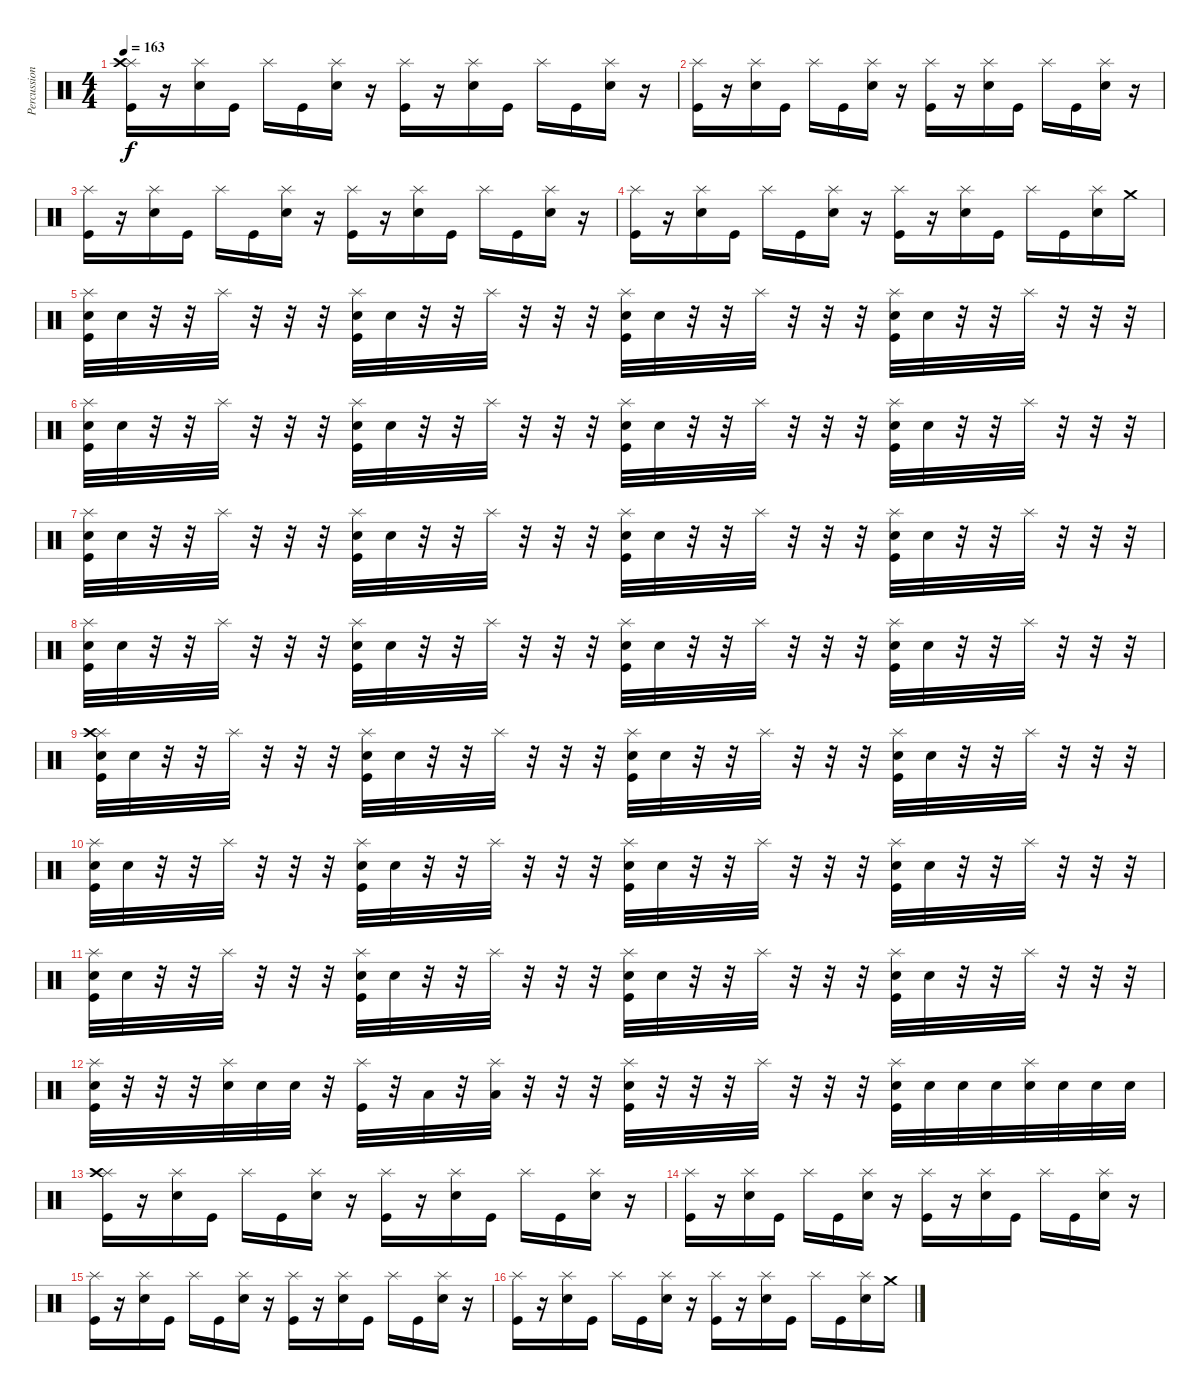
\track ("Percussions" "Percussion") {instrument percussion}
\staff {score}
\articulation defaults
\ts (4 4)
\tempo 163
\clef neutral
\ks c
("Splash (hit)" "Crash high (hit)" "Kick (hit)").16{dy f} r.16 ("Splash (hit)" "Snare (hit) 2").16 "Kick (hit)".16 "Splash (hit)".16 "Kick (hit)".16 ("Splash (hit)" "Snare (hit) 2").16 r.16 ("Splash (hit)" "Kick (hit)").16 r.16 ("Splash (hit)" "Snare (hit) 2").16 "Kick (hit)".16 "Splash (hit)".16 "Kick (hit)".16 ("Splash (hit)" "Snare (hit) 2").16 r.16 |
("Splash (hit)" "Kick (hit)").16 r.16 ("Splash (hit)" "Snare (hit) 2").16 "Kick (hit)".16 "Splash (hit)".16 "Kick (hit)".16 ("Splash (hit)" "Snare (hit) 2").16 r.16 ("Splash (hit)" "Kick (hit)").16 r.16 ("Splash (hit)" "Snare (hit) 2").16 "Kick (hit)".16 "Splash (hit)".16 "Kick (hit)".16 ("Splash (hit)" "Snare (hit) 2").16 r.16 |
("Splash (hit)" "Kick (hit)").16 r.16 ("Splash (hit)" "Snare (hit) 2").16 "Kick (hit)".16 "Splash (hit)".16 "Kick (hit)".16 ("Splash (hit)" "Snare (hit) 2").16 r.16 ("Splash (hit)" "Kick (hit)").16 r.16 ("Splash (hit)" "Snare (hit) 2").16 "Kick (hit)".16 "Splash (hit)".16 "Kick (hit)".16 ("Splash (hit)" "Snare (hit) 2").16 r.16 |
("Splash (hit)" "Kick (hit)").16 r.16 ("Splash (hit)" "Snare (hit) 2").16 "Kick (hit)".16 "Splash (hit)".16 "Kick (hit)".16 ("Splash (hit)" "Snare (hit) 2").16 r.16 ("Splash (hit)" "Kick (hit)").16 r.16 ("Splash (hit)" "Snare (hit) 2").16 "Kick (hit)".16 "Splash (hit)".16 "Kick (hit)".16 ("Splash (hit)" "Snare (hit) 2").16 "Crash medium (hit)".16 |
("Splash (hit)" "Snare (hit) 2" "Kick (hit)").32 "Snare (hit) 2".32 r.32 r.32 "Splash (hit)".32 r.32 r.32 r.32 ("Splash (hit)" "Snare (hit) 2" "Kick (hit)").32 "Snare (hit) 2".32 r.32 r.32 "Splash (hit)".32 r.32 r.32 r.32 ("Splash (hit)" "Snare (hit) 2" "Kick (hit)").32 "Snare (hit) 2".32 r.32 r.32 "Splash (hit)".32 r.32 r.32 r.32 ("Splash (hit)" "Snare (hit) 2" "Kick (hit)").32 "Snare (hit) 2".32 r.32 r.32 "Splash (hit)".32 r.32 r.32 r.32 |
("Splash (hit)" "Snare (hit) 2" "Kick (hit)").32 "Snare (hit) 2".32 r.32 r.32 "Splash (hit)".32 r.32 r.32 r.32 ("Splash (hit)" "Snare (hit) 2" "Kick (hit)").32 "Snare (hit) 2".32 r.32 r.32 "Splash (hit)".32 r.32 r.32 r.32 ("Splash (hit)" "Snare (hit) 2" "Kick (hit)").32 "Snare (hit) 2".32 r.32 r.32 "Splash (hit)".32 r.32 r.32 r.32 ("Splash (hit)" "Snare (hit) 2" "Kick (hit)").32 "Snare (hit) 2".32 r.32 r.32 "Splash (hit)".32 r.32 r.32 r.32 |
("Splash (hit)" "Snare (hit) 2" "Kick (hit)").32 "Snare (hit) 2".32 r.32 r.32 "Splash (hit)".32 r.32 r.32 r.32 ("Splash (hit)" "Snare (hit) 2" "Kick (hit)").32 "Snare (hit) 2".32 r.32 r.32 "Splash (hit)".32 r.32 r.32 r.32 ("Splash (hit)" "Snare (hit) 2" "Kick (hit)").32 "Snare (hit) 2".32 r.32 r.32 "Splash (hit)".32 r.32 r.32 r.32 ("Splash (hit)" "Snare (hit) 2" "Kick (hit)").32 "Snare (hit) 2".32 r.32 r.32 "Splash (hit)".32 r.32 r.32 r.32 |
("Splash (hit)" "Snare (hit) 2" "Kick (hit)").32 "Snare (hit) 2".32 r.32 r.32 "Splash (hit)".32 r.32 r.32 r.32 ("Splash (hit)" "Snare (hit) 2" "Kick (hit)").32 "Snare (hit) 2".32 r.32 r.32 "Splash (hit)".32 r.32 r.32 r.32 ("Splash (hit)" "Snare (hit) 2" "Kick (hit)").32 "Snare (hit) 2".32 r.32 r.32 "Splash (hit)".32 r.32 r.32 r.32 ("Splash (hit)" "Snare (hit) 2" "Kick (hit)").32 "Snare (hit) 2".32 r.32 r.32 "Splash (hit)".32 r.32 r.32 r.32 |
("Splash (hit)" "Crash high (hit)" "Snare (hit) 2" "Kick (hit)").32 "Snare (hit) 2".32 r.32 r.32 "Splash (hit)".32 r.32 r.32 r.32 ("Splash (hit)" "Snare (hit) 2" "Kick (hit)").32 "Snare (hit) 2".32 r.32 r.32 "Splash (hit)".32 r.32 r.32 r.32 ("Splash (hit)" "Snare (hit) 2" "Kick (hit)").32 "Snare (hit) 2".32 r.32 r.32 "Splash (hit)".32 r.32 r.32 r.32 ("Splash (hit)" "Snare (hit) 2" "Kick (hit)").32 "Snare (hit) 2".32 r.32 r.32 "Splash (hit)".32 r.32 r.32 r.32 |
("Splash (hit)" "Snare (hit) 2" "Kick (hit)").32 "Snare (hit) 2".32 r.32 r.32 "Splash (hit)".32 r.32 r.32 r.32 ("Splash (hit)" "Snare (hit) 2" "Kick (hit)").32 "Snare (hit) 2".32 r.32 r.32 "Splash (hit)".32 r.32 r.32 r.32 ("Splash (hit)" "Snare (hit) 2" "Kick (hit)").32 "Snare (hit) 2".32 r.32 r.32 "Splash (hit)".32 r.32 r.32 r.32 ("Splash (hit)" "Snare (hit) 2" "Kick (hit)").32 "Snare (hit) 2".32 r.32 r.32 "Splash (hit)".32 r.32 r.32 r.32 |
("Splash (hit)" "Snare (hit) 2" "Kick (hit)").32 "Snare (hit) 2".32 r.32 r.32 "Splash (hit)".32 r.32 r.32 r.32 ("Splash (hit)" "Snare (hit) 2" "Kick (hit)").32 "Snare (hit) 2".32 r.32 r.32 "Splash (hit)".32 r.32 r.32 r.32 ("Splash (hit)" "Snare (hit) 2" "Kick (hit)").32 "Snare (hit) 2".32 r.32 r.32 "Splash (hit)".32 r.32 r.32 r.32 ("Splash (hit)" "Snare (hit) 2" "Kick (hit)").32 "Snare (hit) 2".32 r.32 r.32 "Splash (hit)".32 r.32 r.32 r.32 |
("Splash (hit)" "Electric Snare (hit)" "Kick (hit)").32 r.32 r.32 r.32 ("Splash (hit)" "Electric Snare (hit)").32 "Electric Snare (hit)".32 "Electric Snare (hit)".32 r.32 ("Splash (hit)" "Kick (hit)").32 r.32 "Low Floor Tom (hit)".32 r.32 ("Splash (hit)" "Low Floor Tom (hit)").32 r.32 r.32 r.32 ("Splash (hit)" "Snare (hit) 2" "Kick (hit)").32 r.32 r.32 r.32 "Splash (hit)".32 r.32 r.32 r.32 ("Splash (hit)" "Electric Snare (hit)" "Kick (hit)").32 "Electric Snare (hit)".32 "Electric Snare (hit)".32 "Electric Snare (hit)".32 ("Splash (hit)" "Electric Snare (hit)").32 "Electric Snare (hit)".32 "Electric Snare (hit)".32 "Electric Snare (hit)".32 |
("Splash (hit)" "Crash high (hit)" "Kick (hit)").16 r.16 ("Splash (hit)" "Snare (hit) 2").16 "Kick (hit)".16 "Splash (hit)".16 "Kick (hit)".16 ("Splash (hit)" "Snare (hit) 2").16 r.16 ("Splash (hit)" "Kick (hit)").16 r.16 ("Splash (hit)" "Snare (hit) 2").16 "Kick (hit)".16 "Splash (hit)".16 "Kick (hit)".16 ("Splash (hit)" "Snare (hit) 2").16 r.16 |
("Splash (hit)" "Kick (hit)").16 r.16 ("Splash (hit)" "Snare (hit) 2").16 "Kick (hit)".16 "Splash (hit)".16 "Kick (hit)".16 ("Splash (hit)" "Snare (hit) 2").16 r.16 ("Splash (hit)" "Kick (hit)").16 r.16 ("Splash (hit)" "Snare (hit) 2").16 "Kick (hit)".16 "Splash (hit)".16 "Kick (hit)".16 ("Splash (hit)" "Snare (hit) 2").16 r.16 |
("Splash (hit)" "Kick (hit)").16 r.16 ("Splash (hit)" "Snare (hit) 2").16 "Kick (hit)".16 "Splash (hit)".16 "Kick (hit)".16 ("Splash (hit)" "Snare (hit) 2").16 r.16 ("Splash (hit)" "Kick (hit)").16 r.16 ("Splash (hit)" "Snare (hit) 2").16 "Kick (hit)".16 "Splash (hit)".16 "Kick (hit)".16 ("Splash (hit)" "Snare (hit) 2").16 r.16 |
("Splash (hit)" "Kick (hit)").16 r.16 ("Splash (hit)" "Snare (hit) 2").16 "Kick (hit)".16 "Splash (hit)".16 "Kick (hit)".16 ("Splash (hit)" "Snare (hit) 2").16 r.16 ("Splash (hit)" "Kick (hit)").16 r.16 ("Splash (hit)" "Snare (hit) 2").16 "Kick (hit)".16 "Splash (hit)".16 "Kick (hit)".16 ("Splash (hit)" "Snare (hit) 2").16 "Crash medium (hit)".16
